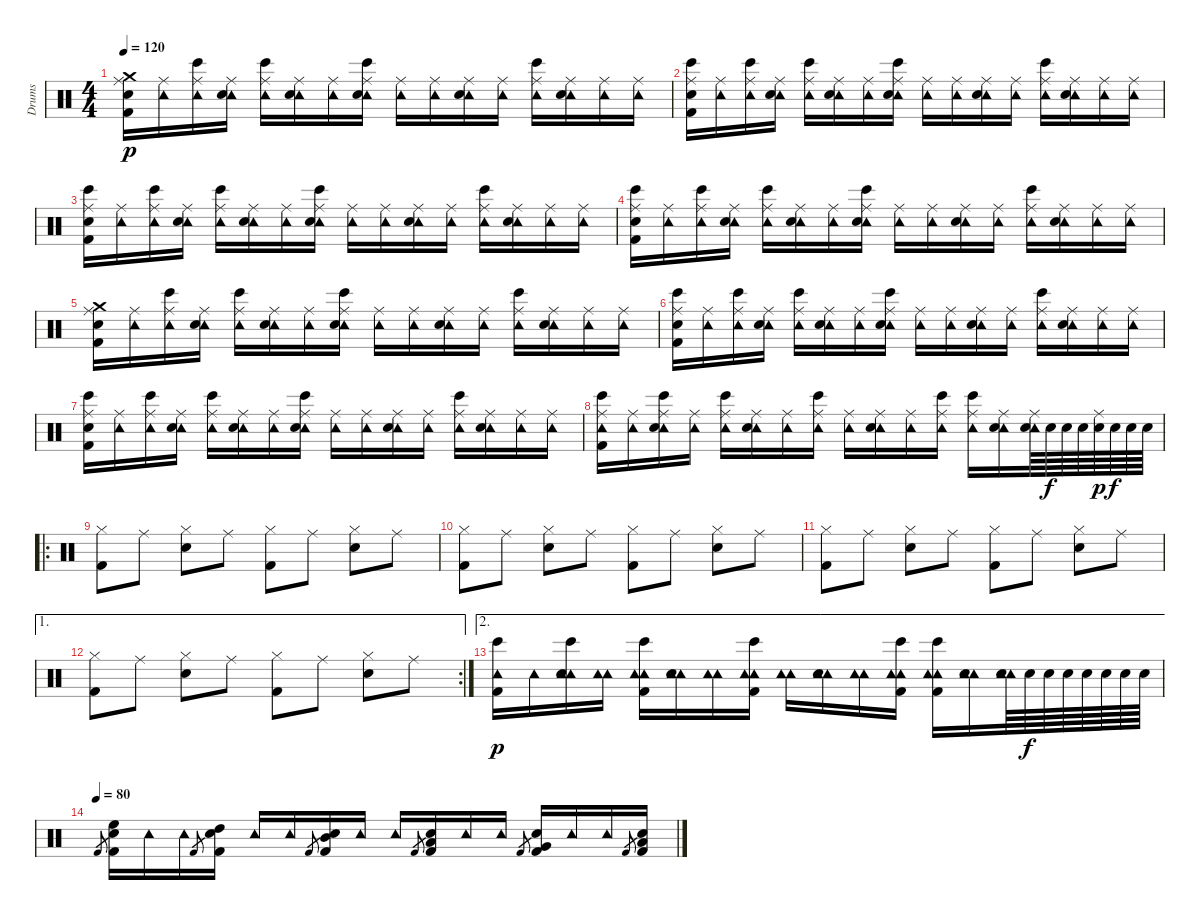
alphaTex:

\track ("Drums" "Drums") {instrument percussion}
\staff {score}
\articulation defaults
\ts (4 4)
\tempo 120
\clef neutral
\ks c
("Ride (middle)" "Crash medium (hit)" "Electric Snare (hit)" "Kick (hit) 2").16{dy p} ("Ride (middle)" "Tambourine (hit)").16 ("Ride (middle)" "Bongo High (hit)" "Tambourine (hit)").16 ("Ride (middle)" "Tambourine (hit)" "Electric Snare (hit)").16 ("Ride (middle)" "Bongo High (hit)" "Tambourine (hit)").16 ("Ride (middle)" "Tambourine (hit)" "Electric Snare (hit)").16 ("Ride (middle)" "Tambourine (hit)").16 ("Ride (middle)" "Bongo High (hit)" "Tambourine (hit)" "Electric Snare (hit)").16 ("Ride (middle)" "Tambourine (hit)").16 ("Ride (middle)" "Tambourine (hit)").16 ("Ride (middle)" "Tambourine (hit)" "Electric Snare (hit)").16 ("Ride (middle)" "Tambourine (hit)").16 ("Ride (middle)" "Bongo High (hit)" "Tambourine (hit)").16 ("Ride (middle)" "Tambourine (hit)" "Electric Snare (hit)").16 ("Ride (middle)" "Tambourine (hit)").16 ("Ride (middle)" "Tambourine (hit)").16 |
("Ride (middle)" "Bongo High (hit)" "Electric Snare (hit)" "Kick (hit) 2").16 ("Ride (middle)" "Tambourine (hit)").16 ("Ride (middle)" "Bongo High (hit)" "Tambourine (hit)").16 ("Ride (middle)" "Tambourine (hit)" "Electric Snare (hit)").16 ("Ride (middle)" "Bongo High (hit)" "Tambourine (hit)").16 ("Ride (middle)" "Tambourine (hit)" "Electric Snare (hit)").16 ("Ride (middle)" "Tambourine (hit)").16 ("Ride (middle)" "Bongo High (hit)" "Tambourine (hit)" "Electric Snare (hit)").16 ("Ride (middle)" "Tambourine (hit)").16 ("Ride (middle)" "Tambourine (hit)").16 ("Ride (middle)" "Tambourine (hit)" "Electric Snare (hit)").16 ("Ride (middle)" "Tambourine (hit)").16 ("Ride (middle)" "Bongo High (hit)" "Tambourine (hit)").16 ("Ride (middle)" "Tambourine (hit)" "Electric Snare (hit)").16 ("Ride (middle)" "Tambourine (hit)").16 ("Ride (middle)" "Tambourine (hit)").16 |
("Ride (middle)" "Bongo High (hit)" "Electric Snare (hit)" "Kick (hit) 2").16 ("Ride (middle)" "Tambourine (hit)").16 ("Ride (middle)" "Bongo High (hit)" "Tambourine (hit)").16 ("Ride (middle)" "Tambourine (hit)" "Electric Snare (hit)").16 ("Ride (middle)" "Bongo High (hit)" "Tambourine (hit)").16 ("Ride (middle)" "Tambourine (hit)" "Electric Snare (hit)").16 ("Ride (middle)" "Tambourine (hit)").16 ("Ride (middle)" "Bongo High (hit)" "Tambourine (hit)" "Electric Snare (hit)").16 ("Ride (middle)" "Tambourine (hit)").16 ("Ride (middle)" "Tambourine (hit)").16 ("Ride (middle)" "Tambourine (hit)" "Electric Snare (hit)").16 ("Ride (middle)" "Tambourine (hit)").16 ("Ride (middle)" "Bongo High (hit)" "Tambourine (hit)").16 ("Ride (middle)" "Tambourine (hit)" "Electric Snare (hit)").16 ("Ride (middle)" "Tambourine (hit)").16 ("Ride (middle)" "Tambourine (hit)").16 |
("Ride (middle)" "Bongo High (hit)" "Electric Snare (hit)" "Kick (hit) 2").16 ("Ride (middle)" "Tambourine (hit)").16 ("Ride (middle)" "Bongo High (hit)" "Tambourine (hit)").16 ("Ride (middle)" "Tambourine (hit)" "Electric Snare (hit)").16 ("Ride (middle)" "Bongo High (hit)" "Tambourine (hit)").16 ("Ride (middle)" "Tambourine (hit)" "Electric Snare (hit)").16 ("Ride (middle)" "Tambourine (hit)").16 ("Ride (middle)" "Bongo High (hit)" "Tambourine (hit)" "Electric Snare (hit)").16 ("Ride (middle)" "Tambourine (hit)").16 ("Ride (middle)" "Tambourine (hit)").16 ("Ride (middle)" "Tambourine (hit)" "Electric Snare (hit)").16 ("Ride (middle)" "Tambourine (hit)").16 ("Ride (middle)" "Bongo High (hit)" "Tambourine (hit)").16 ("Ride (middle)" "Tambourine (hit)" "Electric Snare (hit)").16 ("Ride (middle)" "Tambourine (hit)").16 ("Ride (middle)" "Tambourine (hit)").16 |
("Ride (middle)" "Crash medium (hit)" "Electric Snare (hit)" "Kick (hit) 2").16 ("Ride (middle)" "Tambourine (hit)").16 ("Ride (middle)" "Bongo High (hit)" "Tambourine (hit)").16 ("Ride (middle)" "Tambourine (hit)" "Electric Snare (hit)").16 ("Ride (middle)" "Bongo High (hit)" "Tambourine (hit)").16 ("Ride (middle)" "Tambourine (hit)" "Electric Snare (hit)").16 ("Ride (middle)" "Tambourine (hit)").16 ("Ride (middle)" "Bongo High (hit)" "Tambourine (hit)" "Electric Snare (hit)").16 ("Ride (middle)" "Tambourine (hit)").16 ("Ride (middle)" "Tambourine (hit)").16 ("Ride (middle)" "Tambourine (hit)" "Electric Snare (hit)").16 ("Ride (middle)" "Tambourine (hit)").16 ("Ride (middle)" "Bongo High (hit)" "Tambourine (hit)").16 ("Ride (middle)" "Tambourine (hit)" "Electric Snare (hit)").16 ("Ride (middle)" "Tambourine (hit)").16 ("Ride (middle)" "Tambourine (hit)").16 |
("Ride (middle)" "Bongo High (hit)" "Electric Snare (hit)" "Kick (hit) 2").16 ("Ride (middle)" "Tambourine (hit)").16 ("Ride (middle)" "Bongo High (hit)" "Tambourine (hit)").16 ("Ride (middle)" "Tambourine (hit)" "Electric Snare (hit)").16 ("Ride (middle)" "Bongo High (hit)" "Tambourine (hit)").16 ("Ride (middle)" "Tambourine (hit)" "Electric Snare (hit)").16 ("Ride (middle)" "Tambourine (hit)").16 ("Ride (middle)" "Bongo High (hit)" "Tambourine (hit)" "Electric Snare (hit)").16 ("Ride (middle)" "Tambourine (hit)").16 ("Ride (middle)" "Tambourine (hit)").16 ("Ride (middle)" "Tambourine (hit)" "Electric Snare (hit)").16 ("Ride (middle)" "Tambourine (hit)").16 ("Ride (middle)" "Bongo High (hit)" "Tambourine (hit)").16 ("Ride (middle)" "Tambourine (hit)" "Electric Snare (hit)").16 ("Ride (middle)" "Tambourine (hit)").16 ("Ride (middle)" "Tambourine (hit)").16 |
("Ride (middle)" "Bongo High (hit)" "Electric Snare (hit)" "Kick (hit) 2").16 ("Ride (middle)" "Tambourine (hit)").16 ("Ride (middle)" "Bongo High (hit)" "Tambourine (hit)").16 ("Ride (middle)" "Tambourine (hit)" "Electric Snare (hit)").16 ("Ride (middle)" "Bongo High (hit)" "Tambourine (hit)").16 ("Ride (middle)" "Tambourine (hit)" "Electric Snare (hit)").16 ("Ride (middle)" "Tambourine (hit)").16 ("Ride (middle)" "Bongo High (hit)" "Tambourine (hit)" "Electric Snare (hit)").16 ("Ride (middle)" "Tambourine (hit)").16 ("Ride (middle)" "Tambourine (hit)").16 ("Ride (middle)" "Tambourine (hit)" "Electric Snare (hit)").16 ("Ride (middle)" "Tambourine (hit)").16 ("Ride (middle)" "Bongo High (hit)" "Tambourine (hit)").16 ("Ride (middle)" "Tambourine (hit)" "Electric Snare (hit)").16 ("Ride (middle)" "Tambourine (hit)").16 ("Ride (middle)" "Tambourine (hit)").16 |
("Ride (middle)" "Bongo High (hit)" "Tambourine (hit)" "Kick (hit) 2").16 ("Ride (middle)" "Tambourine (hit)").16 ("Ride (middle)" "Bongo High (hit)" "Tambourine (hit)" "Electric Snare (hit)").16 ("Ride (middle)" "Tambourine (hit)").16 ("Ride (middle)" "Bongo High (hit)" "Tambourine (hit)").16 ("Ride (middle)" "Tambourine (hit)" "Electric Snare (hit)").16 ("Ride (middle)" "Tambourine (hit)").16 ("Ride (middle)" "Bongo High (hit)" "Tambourine (hit)").16 ("Ride (middle)" "Tambourine (hit)").16 ("Ride (middle)" "Tambourine (hit)" "Electric Snare (hit)").16 ("Ride (middle)" "Tambourine (hit)").16 ("Ride (middle)" "Bongo High (hit)" "Tambourine (hit)").16 ("Ride (middle)" "Bongo High (hit)" "Tambourine (hit)").16 ("Ride (middle)" "Tambourine (hit)" "Electric Snare (hit)").16 ("Ride (middle)" "Tambourine (hit)" "Electric Snare (hit)").64 "Electric Snare (hit)".64{dy f} "Electric Snare (hit)".64 "Electric Snare (hit)".64 ("Ride (middle)" "Snare (hit) 2").64{dy p} "Snare (hit) 2".64{dy f} "Snare (hit) 2".64 "Snare (hit) 2".64 |
\ro
("Hi-Hat (closed)" "Kick (hit) 2").8 "Ride (middle)".8 ("Hi-Hat (closed)" "Electric Snare (hit)").8 "Ride (middle)".8 ("Hi-Hat (closed)" "Kick (hit) 2").8 "Ride (middle)".8 ("Hi-Hat (closed)" "Electric Snare (hit)").8 "Ride (middle)".8 |
("Hi-Hat (closed)" "Kick (hit) 2").8 "Ride (middle)".8 ("Hi-Hat (closed)" "Electric Snare (hit)").8 "Ride (middle)".8 ("Hi-Hat (closed)" "Kick (hit) 2").8 "Ride (middle)".8 ("Hi-Hat (closed)" "Electric Snare (hit)").8 "Ride (middle)".8 |
("Hi-Hat (closed)" "Kick (hit) 2").8 "Ride (middle)".8 ("Hi-Hat (closed)" "Electric Snare (hit)").8 "Ride (middle)".8 ("Hi-Hat (closed)" "Kick (hit) 2").8 "Ride (middle)".8 ("Hi-Hat (closed)" "Electric Snare (hit)").8 "Ride (middle)".8 |
\ae 1
\rc 2
("Hi-Hat (closed)" "Kick (hit) 2").8 "Ride (middle)".8 ("Hi-Hat (closed)" "Electric Snare (hit)").8 "Ride (middle)".8 ("Hi-Hat (closed)" "Kick (hit) 2").8 "Ride (middle)".8 ("Hi-Hat (closed)" "Electric Snare (hit)").8 "Ride (middle)".8 |
\ae 2
("Tambourine (hit)" "Bongo High (hit)" "Kick (hit) 2").16{dy p} "Tambourine (hit)".16 ("Tambourine (hit)" "Bongo High (hit)" "Tambourine (hit)" "Electric Snare (hit)").16 ("Tambourine (hit)" "Tambourine (hit)").16 ("Tambourine (hit)" "Bongo High (hit)" "Tambourine (hit)" "Kick (hit) 2").16 ("Tambourine (hit)" "Tambourine (hit)" "Electric Snare (hit)").16 ("Tambourine (hit)" "Tambourine (hit)").16 ("Tambourine (hit)" "Bongo High (hit)" "Tambourine (hit)" "Kick (hit) 2").16 ("Tambourine (hit)" "Tambourine (hit)").16 ("Tambourine (hit)" "Tambourine (hit)" "Electric Snare (hit)").16 ("Tambourine (hit)" "Tambourine (hit)").16 ("Tambourine (hit)" "Bongo High (hit)" "Tambourine (hit)" "Kick (hit) 2").16 ("Tambourine (hit)" "Bongo High (hit)" "Tambourine (hit)" "Kick (hit) 2").16 ("Tambourine (hit)" "Tambourine (hit)" "Electric Snare (hit)").16 ("Tambourine (hit)" "Tambourine (hit)" "Electric Snare (hit)").64 "Electric Snare (hit)".64{dy f} "Electric Snare (hit)".64 "Electric Snare (hit)".64 "Snare (hit) 2".64 "Snare (hit) 2".64 "Snare (hit) 2".64 "Snare (hit) 2".64 |
\tempo (80)
"Kick (hit) 2".8{gr} ("High Floor Tom (hit)" "Snare (hit) 2" "Kick (hit) 2").16 "Tambourine (hit)".16 "Tambourine (hit)".16 "Kick (hit) 2".8{gr} ("High Tom (hit)" "Snare (hit) 2" "Kick (hit) 2").16 "Tambourine (hit)".16 "Tambourine (hit)".16 "Kick (hit) 2".8{gr} ("Mid Tom (hit)" "Snare (hit) 2" "Kick (hit) 2").16 "Tambourine (hit)".16 "Tambourine (hit)".16 "Kick (hit) 2".8{gr} ("Low Tom (hit)" "Snare (hit) 2" "Kick (hit) 2").16 "Tambourine (hit)".16 "Tambourine (hit)".16 "Kick (hit) 2".8{gr} ("Very Low Tom (hit)" "Snare (hit) 2" "Kick (hit) 2").16 "Tambourine (hit)".16 "Tambourine (hit)".16 "Kick (hit) 2".8{gr} ("Low Floor Tom (hit)" "Snare (hit) 2" "Kick (hit) 2").16
